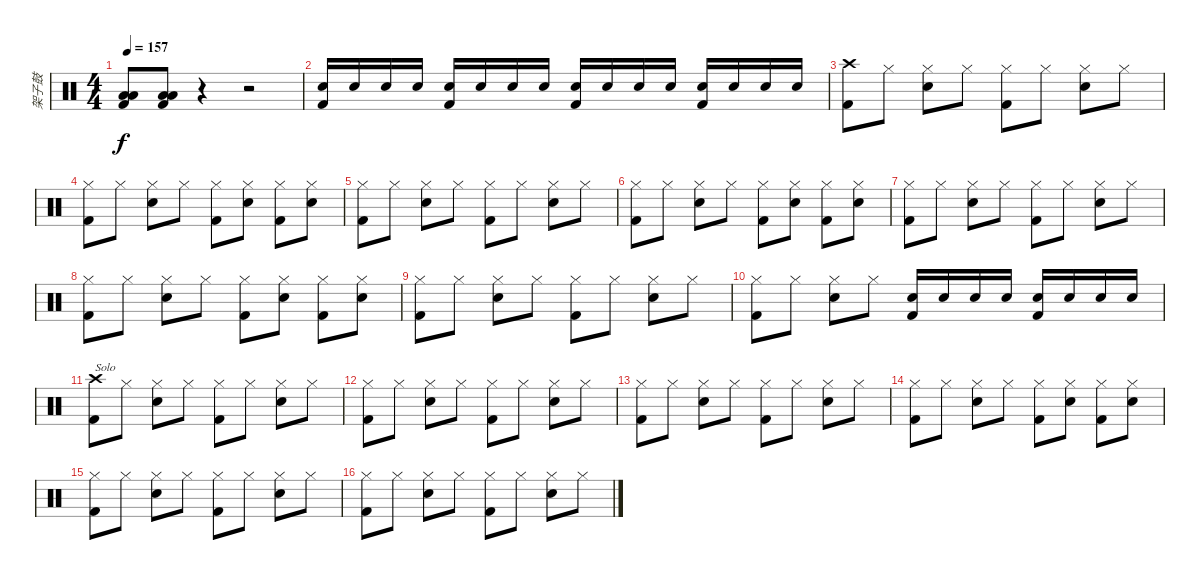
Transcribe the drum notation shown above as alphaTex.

\track ("架子鼓" "架子鼓") {instrument percussion}
\staff {score}
\articulation defaults
\ts (4 4)
\tempo 157
\clef neutral
\ks c
("Low Floor Tom (hit)" "Low Floor Tom (hit)" "Kick (hit) 2").8{dy f} ("Low Floor Tom (hit)" "Low Floor Tom (hit)" "Kick (hit) 2").8 r.4 r.2 |
("Snare (hit) 2" "Kick (hit) 2").16 "Snare (hit) 2".16 "Snare (hit) 2".16 "Snare (hit) 2".16 ("Snare (hit) 2" "Kick (hit) 2").16 "Snare (hit) 2".16 "Snare (hit) 2".16 "Snare (hit) 2".16 ("Snare (hit) 2" "Kick (hit) 2").16 "Snare (hit) 2".16 "Snare (hit) 2".16 "Snare (hit) 2".16 ("Snare (hit) 2" "Kick (hit) 2").16 "Snare (hit) 2".16 "Snare (hit) 2".16 "Snare (hit) 2".16 |
("Crash high (hit)" "Kick (hit) 2").8 "Hi-Hat (closed)".8 ("Hi-Hat (closed)" "Snare (hit) 2").8 "Hi-Hat (closed)".8 ("Hi-Hat (closed)" "Kick (hit) 2").8 "Hi-Hat (closed)".8 ("Hi-Hat (closed)" "Snare (hit) 2").8 "Hi-Hat (closed)".8 |
("Hi-Hat (closed)" "Kick (hit) 2").8 "Hi-Hat (closed)".8 ("Hi-Hat (closed)" "Snare (hit) 2").8 "Hi-Hat (closed)".8 ("Hi-Hat (closed)" "Kick (hit) 2").8 ("Hi-Hat (closed)" "Snare (hit) 2").8 ("Hi-Hat (closed)" "Kick (hit) 2").8 ("Hi-Hat (closed)" "Snare (hit) 2").8 |
("Hi-Hat (closed)" "Kick (hit) 2").8 "Hi-Hat (closed)".8 ("Hi-Hat (closed)" "Snare (hit) 2").8 "Hi-Hat (closed)".8 ("Hi-Hat (closed)" "Kick (hit) 2").8 "Hi-Hat (closed)".8 ("Hi-Hat (closed)" "Snare (hit) 2").8 "Hi-Hat (closed)".8 |
("Hi-Hat (closed)" "Kick (hit) 2").8 "Hi-Hat (closed)".8 ("Hi-Hat (closed)" "Snare (hit) 2").8 "Hi-Hat (closed)".8 ("Hi-Hat (closed)" "Kick (hit) 2").8 ("Hi-Hat (closed)" "Snare (hit) 2").8 ("Hi-Hat (closed)" "Kick (hit) 2").8 ("Hi-Hat (closed)" "Snare (hit) 2").8 |
("Hi-Hat (closed)" "Kick (hit) 2").8 "Hi-Hat (closed)".8 ("Hi-Hat (closed)" "Snare (hit) 2").8 "Hi-Hat (closed)".8 ("Hi-Hat (closed)" "Kick (hit) 2").8 "Hi-Hat (closed)".8 ("Hi-Hat (closed)" "Snare (hit) 2").8 "Hi-Hat (closed)".8 |
("Hi-Hat (closed)" "Kick (hit) 2").8 "Hi-Hat (closed)".8 ("Hi-Hat (closed)" "Snare (hit) 2").8 "Hi-Hat (closed)".8 ("Hi-Hat (closed)" "Kick (hit) 2").8 ("Hi-Hat (closed)" "Snare (hit) 2").8 ("Hi-Hat (closed)" "Kick (hit) 2").8 ("Hi-Hat (closed)" "Snare (hit) 2").8 |
("Hi-Hat (closed)" "Kick (hit) 2").8 "Hi-Hat (closed)".8 ("Hi-Hat (closed)" "Snare (hit) 2").8 "Hi-Hat (closed)".8 ("Hi-Hat (closed)" "Kick (hit) 2").8 "Hi-Hat (closed)".8 ("Hi-Hat (closed)" "Snare (hit) 2").8 "Hi-Hat (closed)".8 |
("Hi-Hat (closed)" "Kick (hit) 2").8 "Hi-Hat (closed)".8 ("Hi-Hat (closed)" "Snare (hit) 2").8 "Hi-Hat (closed)".8 ("Snare (hit) 2" "Kick (hit) 2").16 "Snare (hit) 2".16 "Snare (hit) 2".16 "Snare (hit) 2".16 ("Snare (hit) 2" "Kick (hit) 2").16 "Snare (hit) 2".16 "Snare (hit) 2".16 "Snare (hit) 2".16 |
("Crash high (hit)" "Kick (hit) 2").8{txt "Solo"} "Hi-Hat (closed)".8 ("Hi-Hat (closed)" "Snare (hit) 2").8 "Hi-Hat (closed)".8 ("Hi-Hat (closed)" "Kick (hit) 2").8 "Hi-Hat (closed)".8 ("Hi-Hat (closed)" "Snare (hit) 2").8 "Hi-Hat (closed)".8 |
("Hi-Hat (closed)" "Kick (hit) 2").8 "Hi-Hat (closed)".8 ("Hi-Hat (closed)" "Snare (hit) 2").8 "Hi-Hat (closed)".8 ("Hi-Hat (closed)" "Kick (hit) 2").8 "Hi-Hat (closed)".8 ("Hi-Hat (closed)" "Snare (hit) 2").8 "Hi-Hat (closed)".8 |
("Hi-Hat (closed)" "Kick (hit) 2").8 "Hi-Hat (closed)".8 ("Hi-Hat (closed)" "Snare (hit) 2").8 "Hi-Hat (closed)".8 ("Hi-Hat (closed)" "Kick (hit) 2").8 "Hi-Hat (closed)".8 ("Hi-Hat (closed)" "Snare (hit) 2").8 "Hi-Hat (closed)".8 |
("Hi-Hat (closed)" "Kick (hit) 2").8 "Hi-Hat (closed)".8 ("Hi-Hat (closed)" "Snare (hit) 2").8 "Hi-Hat (closed)".8 ("Hi-Hat (closed)" "Kick (hit) 2").8 ("Hi-Hat (closed)" "Snare (hit) 2").8 ("Hi-Hat (closed)" "Kick (hit) 2").8 ("Hi-Hat (closed)" "Snare (hit) 2").8 |
("Hi-Hat (closed)" "Kick (hit) 2").8 "Hi-Hat (closed)".8 ("Hi-Hat (closed)" "Snare (hit) 2").8 "Hi-Hat (closed)".8 ("Hi-Hat (closed)" "Kick (hit) 2").8 "Hi-Hat (closed)".8 ("Hi-Hat (closed)" "Snare (hit) 2").8 "Hi-Hat (closed)".8 |
("Hi-Hat (closed)" "Kick (hit) 2").8 "Hi-Hat (closed)".8 ("Hi-Hat (closed)" "Snare (hit) 2").8 "Hi-Hat (closed)".8 ("Hi-Hat (closed)" "Kick (hit) 2").8 "Hi-Hat (closed)".8 ("Hi-Hat (closed)" "Snare (hit) 2").8 "Hi-Hat (closed)".8
